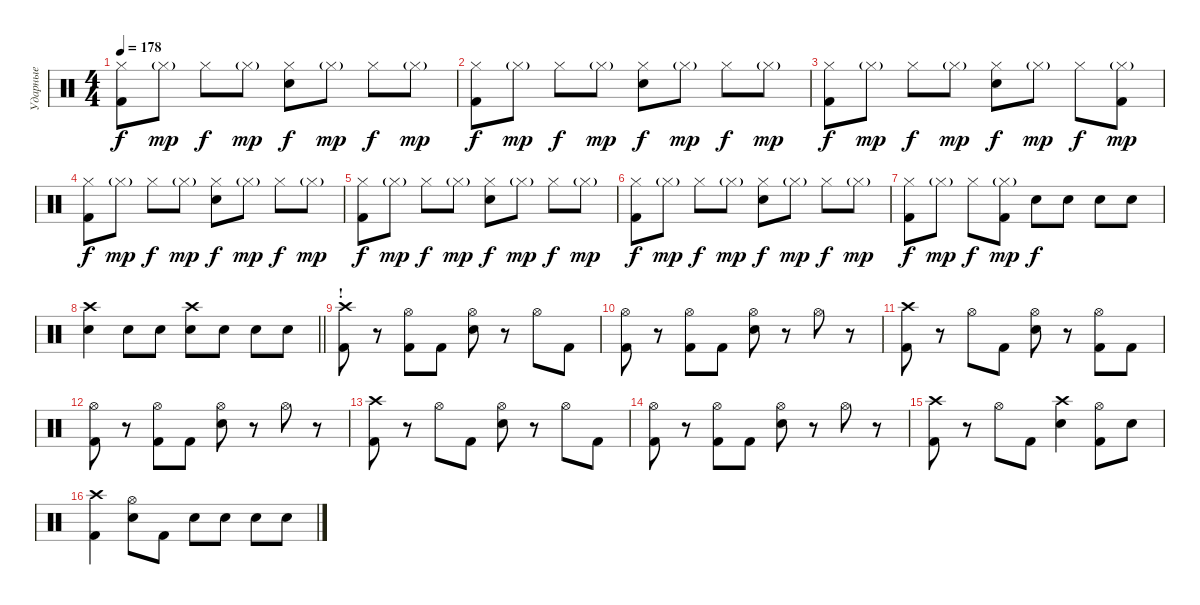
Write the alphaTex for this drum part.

\track ("Ударные" "Ударные") {instrument percussion}
\staff {score}
\articulation defaults
\ts (4 4)
\tempo 178
\clef neutral
\ks c
("Hi-Hat (closed)" "Kick (hit) 2").8{dy f} "Hi-Hat (closed)"{g}.8{dy mp} "Hi-Hat (closed)".8{dy f} "Hi-Hat (closed)"{g}.8{dy mp} ("Hi-Hat (closed)" "Snare (hit) 2").8{dy f} "Hi-Hat (closed)"{g}.8{dy mp} "Hi-Hat (closed)".8{dy f} "Hi-Hat (closed)"{g}.8{dy mp} |
("Hi-Hat (closed)" "Kick (hit) 2").8{dy f} "Hi-Hat (closed)"{g}.8{dy mp} "Hi-Hat (closed)".8{dy f} "Hi-Hat (closed)"{g}.8{dy mp} ("Hi-Hat (closed)" "Snare (hit) 2").8{dy f} "Hi-Hat (closed)"{g}.8{dy mp} "Hi-Hat (closed)".8{dy f} "Hi-Hat (closed)"{g}.8{dy mp} |
("Hi-Hat (closed)" "Kick (hit) 2").8{dy f} "Hi-Hat (closed)"{g}.8{dy mp} "Hi-Hat (closed)".8{dy f} "Hi-Hat (closed)"{g}.8{dy mp} ("Hi-Hat (closed)" "Snare (hit) 2").8{dy f} "Hi-Hat (closed)"{g}.8{dy mp} "Hi-Hat (closed)".8{dy f} ("Hi-Hat (closed)"{g} "Kick (hit) 2").8{dy mp} |
("Hi-Hat (closed)" "Kick (hit) 2").8{dy f} "Hi-Hat (closed)"{g}.8{dy mp} "Hi-Hat (closed)".8{dy f} "Hi-Hat (closed)"{g}.8{dy mp} ("Hi-Hat (closed)" "Snare (hit) 2").8{dy f} "Hi-Hat (closed)"{g}.8{dy mp} "Hi-Hat (closed)".8{dy f} "Hi-Hat (closed)"{g}.8{dy mp} |
("Hi-Hat (closed)" "Kick (hit) 2").8{dy f} "Hi-Hat (closed)"{g}.8{dy mp} "Hi-Hat (closed)".8{dy f} "Hi-Hat (closed)"{g}.8{dy mp} ("Hi-Hat (closed)" "Snare (hit) 2").8{dy f} "Hi-Hat (closed)"{g}.8{dy mp} "Hi-Hat (closed)".8{dy f} "Hi-Hat (closed)"{g}.8{dy mp} |
("Hi-Hat (closed)" "Kick (hit) 2").8{dy f} "Hi-Hat (closed)"{g}.8{dy mp} "Hi-Hat (closed)".8{dy f} "Hi-Hat (closed)"{g}.8{dy mp} ("Hi-Hat (closed)" "Snare (hit) 2").8{dy f} "Hi-Hat (closed)"{g}.8{dy mp} "Hi-Hat (closed)".8{dy f} "Hi-Hat (closed)"{g}.8{dy mp} |
("Hi-Hat (closed)" "Kick (hit) 2").8{dy f} "Hi-Hat (closed)"{g}.8{dy mp} "Hi-Hat (closed)".8{dy f} ("Hi-Hat (closed)"{g} "Kick (hit) 2").8{dy mp} "Snare (hit) 2".8{dy f} "Snare (hit) 2".8 "Snare (hit) 2".8 "Snare (hit) 2".8 |
\barLineRight lightlight
("Crash high (hit)" "Snare (hit) 2").4 "Snare (hit) 2".8 "Snare (hit) 2".8 ("Crash high (hit)" "Snare (hit) 2").8 "Snare (hit) 2".8 "Snare (hit) 2".8 "Snare (hit) 2".8 |
\section ("" "!")
("Crash high (hit)" "Kick (hit) 2").8 r.8 ("Hi-Hat (open)" "Kick (hit) 2").8 "Kick (hit) 2".8 ("Hi-Hat (open)" "Snare (hit) 2").8 r.8 "Hi-Hat (open)".8 "Kick (hit) 2".8 |
("Hi-Hat (open)" "Kick (hit) 2").8 r.8 ("Hi-Hat (open)" "Kick (hit) 2").8 "Kick (hit) 2".8 ("Hi-Hat (open)" "Snare (hit) 2").8 r.8 "Hi-Hat (open)".8 r.8 |
("Crash high (hit)" "Kick (hit) 2").8 r.8 "Hi-Hat (open)".8 "Kick (hit) 2".8 ("Hi-Hat (open)" "Snare (hit) 2").8 r.8 ("Hi-Hat (open)" "Kick (hit) 2").8 "Kick (hit) 2".8 |
("Hi-Hat (open)" "Kick (hit) 2").8 r.8 ("Hi-Hat (open)" "Kick (hit) 2").8 "Kick (hit) 2".8 ("Hi-Hat (open)" "Snare (hit) 2").8 r.8 "Hi-Hat (open)".8 r.8 |
("Crash high (hit)" "Kick (hit) 2").8 r.8 "Hi-Hat (open)".8 "Kick (hit) 2".8 ("Hi-Hat (open)" "Snare (hit) 2").8 r.8 "Hi-Hat (open)".8 "Kick (hit) 2".8 |
("Hi-Hat (open)" "Kick (hit) 2").8 r.8 ("Hi-Hat (open)" "Kick (hit) 2").8 "Kick (hit) 2".8 ("Hi-Hat (open)" "Snare (hit) 2").8 r.8 "Hi-Hat (open)".8 r.8 |
("Crash high (hit)" "Kick (hit) 2").8 r.8 "Hi-Hat (open)".8 "Kick (hit) 2".8 ("Crash high (hit)" "Snare (hit) 2").4 ("Hi-Hat (open)" "Kick (hit) 2").8 "Snare (hit) 2".8 |
("Crash high (hit)" "Kick (hit) 2").4 ("Hi-Hat (open)" "Snare (hit) 2").8 "Kick (hit) 2".8 "Snare (hit) 2".8 "Snare (hit) 2".8 "Snare (hit) 2".8 "Snare (hit) 2".8
